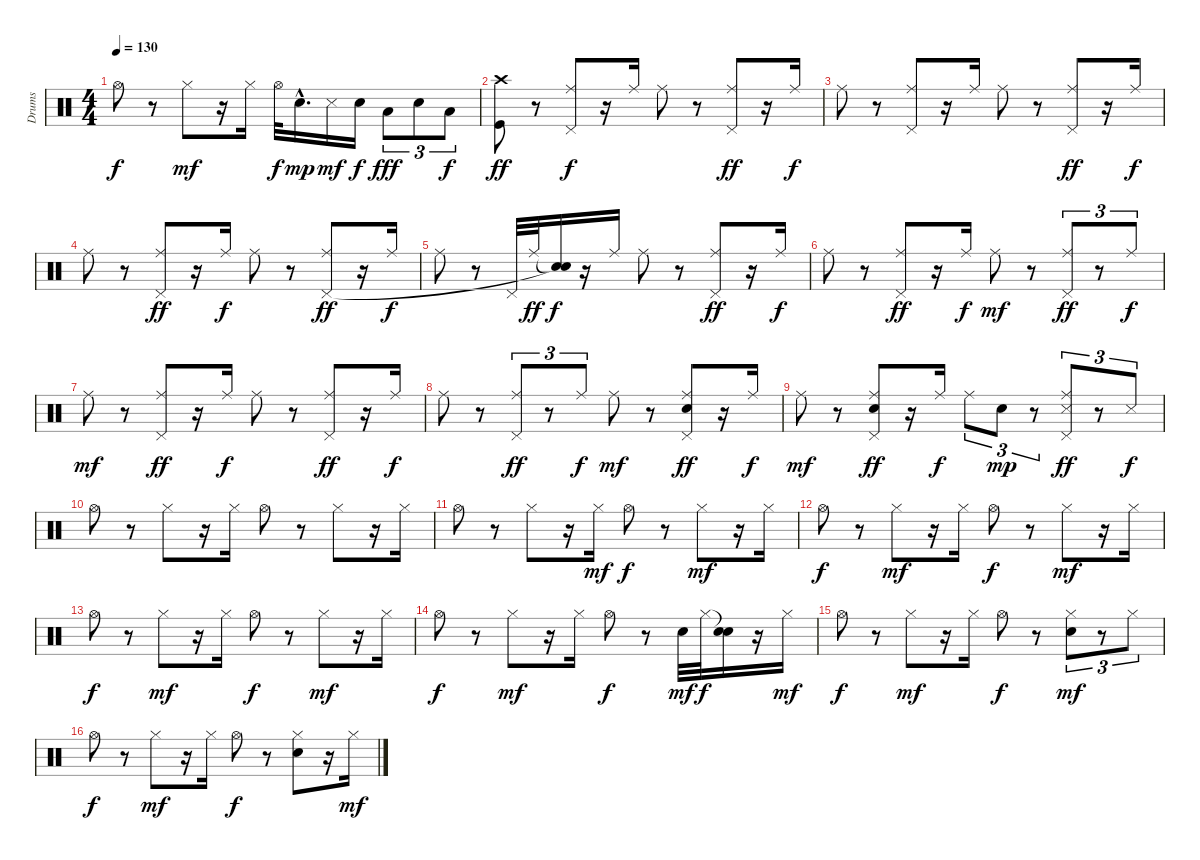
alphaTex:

\track ("Drums" "Drums") {instrument percussion}
\staff {score}
\articulation defaults
\ts (4 4)
\tempo 130
\clef neutral
\ks c "Hi-Hat (open)".8{dy f}
r.8 "Hi-Hat (closed)".8{dy mf} r.16 "Hi-Hat (closed)".16 "Hi-Hat (open)".32{dy f} "Snare (hit) 2"{hac}.16{d dy mp} "Snare (side stick) 3".16{dy mf} "Snare (hit) 2".16{dy f} "Low Tom (hit)".8{tu (3 2) dy fff} "Snare (hit) 2".8{tu (3 2)} "Low Floor Tom (hit)".8{tu (3 2) dy f} |
("Crash high (hit)" "Kick (hit)").8{dy ff} r.8 ("Ride (middle)" "Pedal Hi-Hat (hit)").8{dy f} r.16 "Ride (middle)".16 "Ride (middle)".8 r.8 ("Ride (middle)" "Pedal Hi-Hat (hit)").8{dy ff} r.16 "Ride (middle)".16{dy f} |
"Ride (middle)".8 r.8 ("Ride (middle)" "Pedal Hi-Hat (hit)").8 r.16 "Ride (middle)".16 "Ride (middle)".8 r.8 ("Ride (middle)" "Pedal Hi-Hat (hit)").8{dy ff} r.16 "Ride (middle)".16{dy f} |
"Ride (middle)".8 r.8 ("Ride (middle)" "Pedal Hi-Hat (hit)").8{dy ff} r.16 "Ride (middle)".16{dy f} "Ride (middle)".8 r.8 ("Ride (middle)" "Pedal Hi-Hat (hit)").8{dy ff} r.16 "Ride (middle)".16{dy f} |
"Ride (middle)".8 r.8 "Pedal Hi-Hat (hit)".32 "Ride (middle)".32{dy ff} ("Snare (hit)"{t} "Snare (hit)"{t}).16{dy f} r.16 "Ride (middle)".16 "Ride (middle)".8 r.8 ("Ride (middle)" "Pedal Hi-Hat (hit)").8{dy ff} r.16 "Ride (middle)".16{dy f} |
"Ride (middle)".8 r.8 ("Ride (middle)" "Pedal Hi-Hat (hit)").8{dy ff} r.16 "Ride (middle)".16{dy f} "Ride (middle)".8{dy mf} r.8 ("Ride (middle)" "Pedal Hi-Hat (hit)").8{tu (3 2) dy ff} r.8{tu (3 2)} "Ride (middle)".8{tu (3 2) dy f} |
"Ride (middle)".8{dy mf} r.8 ("Ride (middle)" "Pedal Hi-Hat (hit)").8{dy ff} r.16 "Ride (middle)".16{dy f} "Ride (middle)".8 r.8 ("Ride (middle)" "Pedal Hi-Hat (hit)").8{dy ff} r.16 "Ride (middle)".16{dy f} |
"Ride (middle)".8 r.8 ("Ride (middle)" "Pedal Hi-Hat (hit)").8{tu (3 2) dy ff} r.8{tu (3 2)} "Ride (middle)".8{tu (3 2) dy f} "Ride (middle)".8{dy mf} r.8 ("Ride (middle)" "Pedal Hi-Hat (hit)" "Snare (hit) 2").8{dy ff} r.16 "Ride (middle)".16{dy f} |
"Ride (middle)".8{dy mf} r.8 ("Ride (middle)" "Pedal Hi-Hat (hit)" "Snare (hit) 2").8{dy ff} r.16 "Ride (middle)".16{dy f} "Ride (middle)".8{tu (3 2)} "Snare (hit) 2".8{tu (3 2) dy mp} r.8{tu (3 2)} ("Ride (middle)" "Pedal Hi-Hat (hit)" "Snare (side stick) 3").8{tu (3 2) dy ff} r.8{tu (3 2)} "Snare (side stick) 3".8{tu (3 2) dy f} |
"Hi-Hat (open)".8 r.8 "Hi-Hat (closed)".8 r.16 "Hi-Hat (closed)".16 "Hi-Hat (open)".8 r.8 "Hi-Hat (closed)".8 r.16 "Hi-Hat (closed)".16 |
"Hi-Hat (open)".8 r.8 "Hi-Hat (closed)".8 r.16 "Hi-Hat (closed)".16{dy mf} "Hi-Hat (open)".8{dy f} r.8 "Hi-Hat (closed)".8{dy mf} r.16 "Hi-Hat (closed)".16 |
"Hi-Hat (open)".8{dy f} r.8 "Hi-Hat (closed)".8{dy mf} r.16 "Hi-Hat (closed)".16 "Hi-Hat (open)".8{dy f} r.8 "Hi-Hat (closed)".8{dy mf} r.16 "Hi-Hat (closed)".16 |
"Hi-Hat (open)".8{dy f} r.8 "Hi-Hat (closed)".8{dy mf} r.16 "Hi-Hat (closed)".16 "Hi-Hat (open)".8{dy f} r.8 "Hi-Hat (closed)".8{dy mf} r.16 "Hi-Hat (closed)".16 |
"Hi-Hat (open)".8{dy f} r.8 "Hi-Hat (closed)".8{dy mf} r.16 "Hi-Hat (closed)".16 "Hi-Hat (open)".8{dy f} r.8 "Snare (hit) 2".32{dy mf} "Hi-Hat (closed)".32{dy f} ("Snare (hit)"{t} "Snare (hit)").16 r.16 "Hi-Hat (closed)".16{dy mf} |
"Hi-Hat (open)".8{dy f} r.8 "Hi-Hat (closed)".8{dy mf} r.16 "Hi-Hat (closed)".16 "Hi-Hat (open)".8{dy f} r.8 ("Hi-Hat (closed)" "Snare (hit) 2").8{tu (3 2) dy mf} r.8{tu (3 2)} "Hi-Hat (closed)".8{tu (3 2)} |
"Hi-Hat (open)".8{dy f} r.8 "Hi-Hat (closed)".8{dy mf} r.16 "Hi-Hat (closed)".16 "Hi-Hat (open)".8{dy f} r.8 ("Hi-Hat (closed)" "Snare (hit) 2").8 r.16 "Hi-Hat (closed)".16{dy mf}
